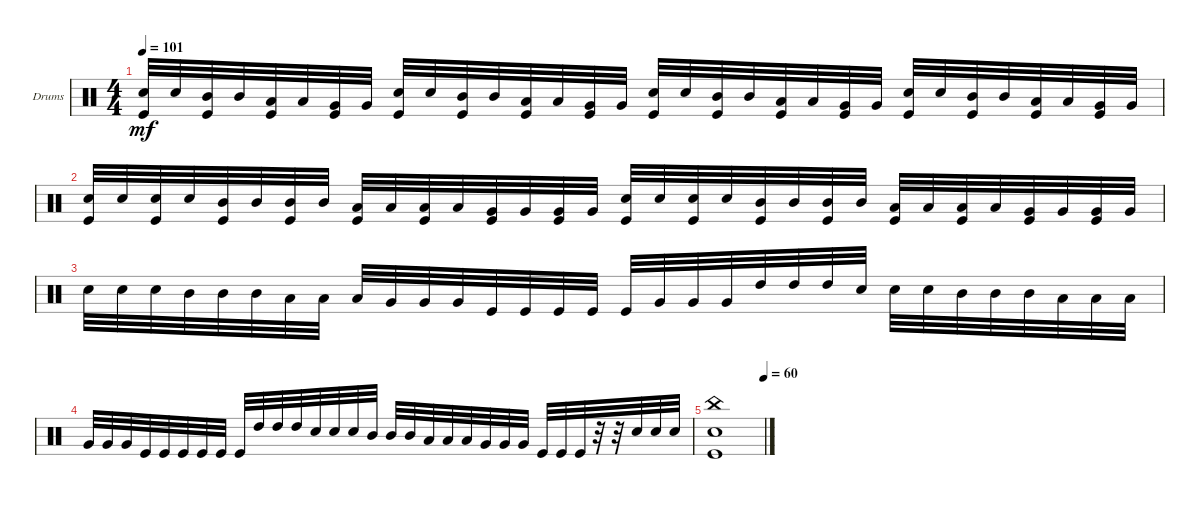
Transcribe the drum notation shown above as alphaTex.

\bracketExtendMode groupsimilarinstruments
\firstSystemTrackNameOrientation horizontal
\otherSystemsTrackNameOrientation horizontal
\track ("Drumkit" "Drums") {instrument percussion}
\staff {score}
\articulation defaults
\ts (4 4)
\tempo 101
\clef neutral
\ks c
("Kick (hit)" "Snare (hit) 2").32{dy mf} "Snare (hit) 2".32 ("Kick (hit)" "Mid Tom (hit)").32 "Mid Tom (hit)".32 ("Kick (hit)" "Low Tom (hit)").32 "Low Tom (hit)".32 ("Kick (hit)" "Very Low Tom (hit)").32 "Very Low Tom (hit)".32 ("Kick (hit)" "Snare (hit) 2").32 "Snare (hit) 2".32 ("Kick (hit)" "Mid Tom (hit)").32 "Mid Tom (hit)".32 ("Kick (hit)" "Low Tom (hit)").32 "Low Tom (hit)".32 ("Kick (hit)" "Very Low Tom (hit)").32 "Very Low Tom (hit)".32 ("Kick (hit)" "Snare (hit) 2").32 "Snare (hit) 2".32 ("Kick (hit)" "Mid Tom (hit)").32 "Mid Tom (hit)".32 ("Kick (hit)" "Low Tom (hit)").32 "Low Tom (hit)".32 ("Kick (hit)" "Very Low Tom (hit)").32 "Very Low Tom (hit)".32 ("Kick (hit)" "Snare (hit) 2").32 "Snare (hit) 2".32 ("Kick (hit)" "Mid Tom (hit)").32 "Mid Tom (hit)".32 ("Kick (hit)" "Low Tom (hit)").32 "Low Tom (hit)".32 ("Kick (hit)" "Very Low Tom (hit)").32 "Very Low Tom (hit)".32 |
("Kick (hit)" "Snare (hit) 2").32 "Snare (hit) 2".32 ("Kick (hit)" "Snare (hit) 2").32 "Snare (hit) 2".32 ("Kick (hit)" "Mid Tom (hit)").32 "Mid Tom (hit)".32 ("Kick (hit)" "Mid Tom (hit)").32 "Mid Tom (hit)".32 ("Kick (hit)" "Low Tom (hit)").32 "Low Tom (hit)".32 ("Kick (hit)" "Low Tom (hit)").32 "Low Tom (hit)".32 ("Kick (hit)" "Very Low Tom (hit)").32 "Very Low Tom (hit)".32 ("Kick (hit)" "Very Low Tom (hit)").32 "Very Low Tom (hit)".32 ("Kick (hit)" "Snare (hit) 2").32 "Snare (hit) 2".32 ("Kick (hit)" "Snare (hit) 2").32 "Snare (hit) 2".32 ("Kick (hit)" "Mid Tom (hit)").32 "Mid Tom (hit)".32 ("Kick (hit)" "Mid Tom (hit)").32 "Mid Tom (hit)".32 ("Kick (hit)" "Low Tom (hit)").32 "Low Tom (hit)".32 ("Kick (hit)" "Low Tom (hit)").32 "Low Tom (hit)".32 ("Kick (hit)" "Very Low Tom (hit)").32 "Very Low Tom (hit)".32 ("Kick (hit)" "Very Low Tom (hit)").32 "Very Low Tom (hit)".32 |
"Snare (hit) 2".32 "Snare (hit) 2".32 "Snare (hit) 2".32 "Mid Tom (hit)".32 "Mid Tom (hit)".32 "Mid Tom (hit)".32 "Low Tom (hit)".32 "Low Tom (hit)".32 "Low Tom (hit)".32 "Very Low Tom (hit)".32 "Very Low Tom (hit)".32 "Very Low Tom (hit)".32 "Kick (hit)".32 "Kick (hit)".32 "Kick (hit)".32 "Kick (hit)".32 "Kick (hit)".32 "Very Low Tom (hit)".32 "Very Low Tom (hit)".32 "Very Low Tom (hit)".32 "High Tom (hit)".32 "High Tom (hit)".32 "High Tom (hit)".32 "Snare (hit) 2".32 "Snare (hit) 2".32 "Snare (hit) 2".32 "Mid Tom (hit)".32 "Mid Tom (hit)".32 "Mid Tom (hit)".32 "Low Tom (hit)".32 "Low Tom (hit)".32 "Low Tom (hit)".32 |
"Very Low Tom (hit)".32 "Very Low Tom (hit)".32 "Very Low Tom (hit)".32 "Kick (hit)".32 "Kick (hit)".32 "Kick (hit)".32 "Kick (hit)".32 "Kick (hit)".32 "Kick (hit)".32 "High Tom (hit)".32 "High Tom (hit)".32 "High Tom (hit)".32 "Snare (hit) 2".32 "Snare (hit) 2".32 "Snare (hit) 2".32 "Mid Tom (hit)".32 "Mid Tom (hit)".32 "Mid Tom (hit)".32 "Low Tom (hit)".32 "Low Tom (hit)".32 "Low Tom (hit)".32 "Very Low Tom (hit)".32 "Very Low Tom (hit)".32 "Very Low Tom (hit)".32 "Kick (hit)".32 "Kick (hit)".32 "Kick (hit)".32 r.32 r.32 "Snare (hit) 2".32 "Snare (hit) 2".32 "Snare (hit) 2".32 |
\tempo (60 1)
("Kick (hit)" "China (hit)" "Snare (hit) 2").1
